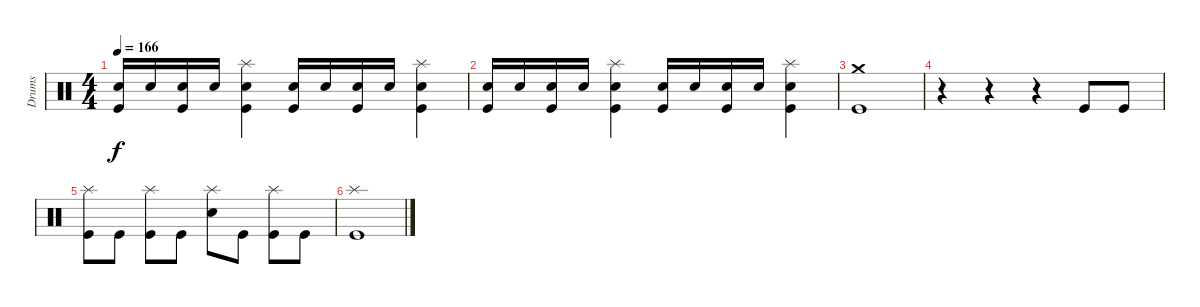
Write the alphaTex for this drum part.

\track ("Drums" "Drums") {instrument percussion}
\staff {score}
\articulation defaults
\ts (4 4)
\tempo 166
\clef neutral
\ks c
("Electric Snare (hit)" "Kick (hit)").16{dy f} "Electric Snare (hit)".16 ("Electric Snare (hit)" "Kick (hit)").16 "Electric Snare (hit)".16 ("Splash (hit)" "Electric Snare (hit)" "Kick (hit)").4 ("Electric Snare (hit)" "Kick (hit)").16 "Electric Snare (hit)".16 ("Electric Snare (hit)" "Kick (hit)").16 "Electric Snare (hit)".16 ("Splash (hit)" "Electric Snare (hit)" "Kick (hit)").4 |
("Electric Snare (hit)" "Kick (hit)").16 "Electric Snare (hit)".16 ("Electric Snare (hit)" "Kick (hit)").16 "Electric Snare (hit)".16 ("Splash (hit)" "Electric Snare (hit)" "Kick (hit)").4 ("Electric Snare (hit)" "Kick (hit)").16 "Electric Snare (hit)".16 ("Electric Snare (hit)" "Kick (hit)").16 "Electric Snare (hit)".16 ("Splash (hit)" "Electric Snare (hit)" "Kick (hit)").4 |
("Crash medium (hit)" "Kick (hit)").1 |
r.4 r.4 r.4 "Kick (hit)".8 "Kick (hit)".8 |
("Splash (hit)" "Kick (hit)").8 "Kick (hit)".8 ("Splash (hit)" "Kick (hit)").8 "Kick (hit)".8 ("Splash (hit)" "Electric Snare (hit)").8 "Kick (hit)".8 ("Splash (hit)" "Kick (hit)").8 "Kick (hit)".8 |
("Splash (hit)" "Kick (hit)").1
